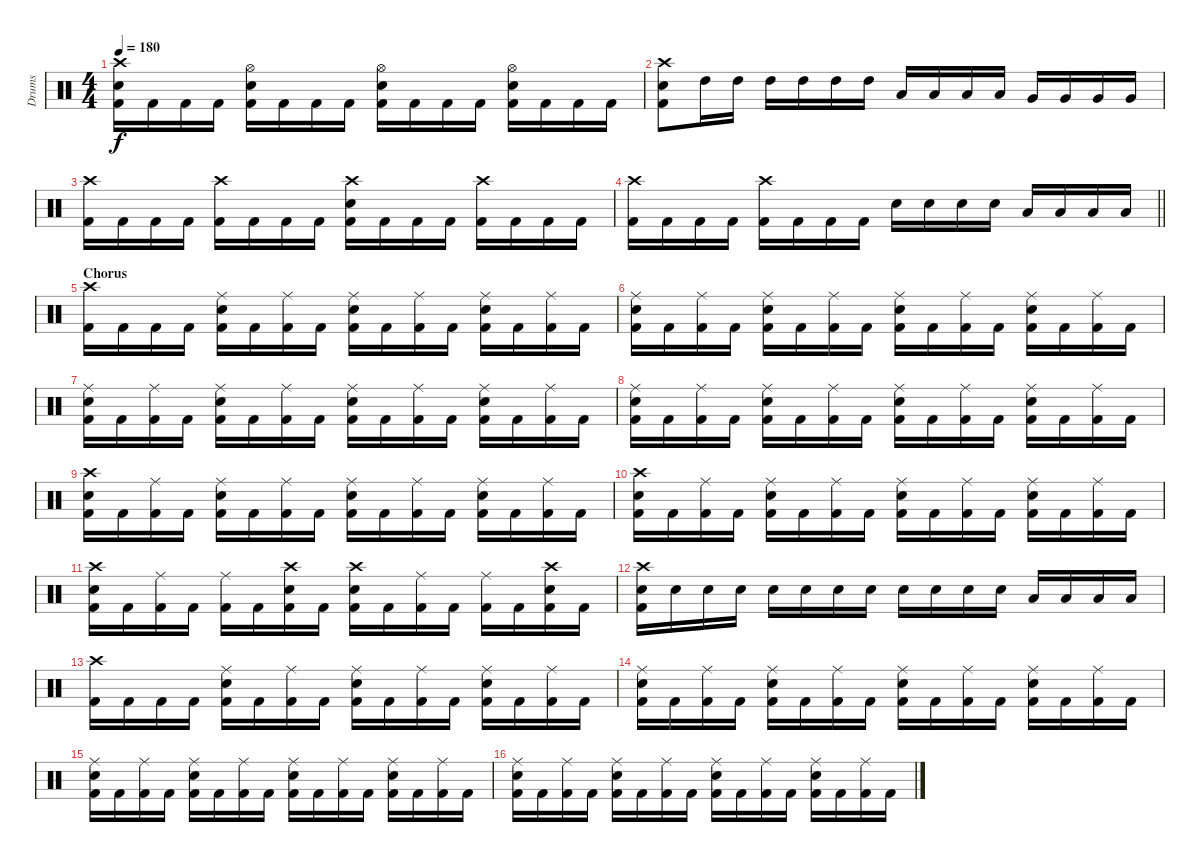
\track ("Drums" "Drums") {instrument percussion}
\staff {score}
\articulation defaults
\ts (4 4)
\tempo 180
\clef neutral
\ks c
("Crash high (hit)" "Electric Snare (hit)" "Kick (hit) 2").16{dy f} "Kick (hit) 2".16 "Kick (hit) 2".16 "Kick (hit) 2".16 ("Hi-Hat (open)" "Electric Snare (hit)" "Kick (hit) 2").16 "Kick (hit) 2".16 "Kick (hit) 2".16 "Kick (hit) 2".16 ("Hi-Hat (open)" "Electric Snare (hit)" "Kick (hit) 2").16 "Kick (hit) 2".16 "Kick (hit) 2".16 "Kick (hit) 2".16 ("Hi-Hat (open)" "Electric Snare (hit)" "Kick (hit) 2").16 "Kick (hit) 2".16 "Kick (hit) 2".16 "Kick (hit) 2".16 |
("Crash high (hit)" "Electric Snare (hit)" "Kick (hit) 2").8 "High Tom (hit)".16 "High Tom (hit)".16 "High Tom (hit)".16 "High Tom (hit)".16 "High Tom (hit)".16 "High Tom (hit)".16 "Low Tom (hit)".16 "Low Tom (hit)".16 "Low Tom (hit)".16 "Low Tom (hit)".16 "Very Low Tom (hit)".16 "Very Low Tom (hit)".16 "Very Low Tom (hit)".16 "Very Low Tom (hit)".16 |
("Crash high (hit)" "Kick (hit) 2").16 "Kick (hit) 2".16 "Kick (hit) 2".16 "Kick (hit) 2".16 ("Crash high (hit)" "Kick (hit) 2").16 "Kick (hit) 2".16 "Kick (hit) 2".16 "Kick (hit) 2".16 ("Crash high (hit)" "Electric Snare (hit)" "Kick (hit) 2").16 "Kick (hit) 2".16 "Kick (hit) 2".16 "Kick (hit) 2".16 ("Crash high (hit)" "Kick (hit) 2").16 "Kick (hit) 2".16 "Kick (hit) 2".16 "Kick (hit) 2".16 |
\barLineRight lightlight
("Crash high (hit)" "Kick (hit) 2").16 "Kick (hit) 2".16 "Kick (hit) 2".16 "Kick (hit) 2".16 ("Crash high (hit)" "Kick (hit) 2").16 "Kick (hit) 2".16 "Kick (hit) 2".16 "Kick (hit) 2".16 "Electric Snare (hit)".16 "Electric Snare (hit)".16 "Electric Snare (hit)".16 "Electric Snare (hit)".16 "Low Tom (hit)".16 "Low Tom (hit)".16 "Low Tom (hit)".16 "Low Tom (hit)".16 |
\section ("" "Chorus")
("Crash high (hit)" "Kick (hit) 2").16 "Kick (hit) 2".16 "Kick (hit) 2".16 "Kick (hit) 2".16 ("Ride (middle)" "Electric Snare (hit)" "Kick (hit) 2").16 "Kick (hit) 2".16 ("Ride (middle)" "Kick (hit) 2").16 "Kick (hit) 2".16 ("Ride (middle)" "Electric Snare (hit)" "Kick (hit) 2").16 "Kick (hit) 2".16 ("Ride (middle)" "Kick (hit) 2").16 "Kick (hit) 2".16 ("Ride (middle)" "Electric Snare (hit)" "Kick (hit) 2").16 "Kick (hit) 2".16 ("Ride (middle)" "Kick (hit) 2").16 "Kick (hit) 2".16 |
("Ride (middle)" "Electric Snare (hit)" "Kick (hit) 2").16 "Kick (hit) 2".16 ("Ride (middle)" "Kick (hit) 2").16 "Kick (hit) 2".16 ("Ride (middle)" "Electric Snare (hit)" "Kick (hit) 2").16 "Kick (hit) 2".16 ("Ride (middle)" "Kick (hit) 2").16 "Kick (hit) 2".16 ("Ride (middle)" "Electric Snare (hit)" "Kick (hit) 2").16 "Kick (hit) 2".16 ("Ride (middle)" "Kick (hit) 2").16 "Kick (hit) 2".16 ("Ride (middle)" "Electric Snare (hit)" "Kick (hit) 2").16 "Kick (hit) 2".16 ("Ride (middle)" "Kick (hit) 2").16 "Kick (hit) 2".16 |
("Ride (middle)" "Electric Snare (hit)" "Kick (hit) 2").16 "Kick (hit) 2".16 ("Ride (middle)" "Kick (hit) 2").16 "Kick (hit) 2".16 ("Ride (middle)" "Electric Snare (hit)" "Kick (hit) 2").16 "Kick (hit) 2".16 ("Ride (middle)" "Kick (hit) 2").16 "Kick (hit) 2".16 ("Ride (middle)" "Electric Snare (hit)" "Kick (hit) 2").16 "Kick (hit) 2".16 ("Ride (middle)" "Kick (hit) 2").16 "Kick (hit) 2".16 ("Ride (middle)" "Electric Snare (hit)" "Kick (hit) 2").16 "Kick (hit) 2".16 ("Ride (middle)" "Kick (hit) 2").16 "Kick (hit) 2".16 |
("Ride (middle)" "Electric Snare (hit)" "Kick (hit) 2").16 "Kick (hit) 2".16 ("Ride (middle)" "Kick (hit) 2").16 "Kick (hit) 2".16 ("Ride (middle)" "Electric Snare (hit)" "Kick (hit) 2").16 "Kick (hit) 2".16 ("Ride (middle)" "Kick (hit) 2").16 "Kick (hit) 2".16 ("Ride (middle)" "Electric Snare (hit)" "Kick (hit) 2").16 "Kick (hit) 2".16 ("Ride (middle)" "Kick (hit) 2").16 "Kick (hit) 2".16 ("Ride (middle)" "Electric Snare (hit)" "Kick (hit) 2").16 "Kick (hit) 2".16 ("Ride (middle)" "Kick (hit) 2").16 "Kick (hit) 2".16 |
("Crash high (hit)" "Electric Snare (hit)" "Kick (hit) 2").16 "Kick (hit) 2".16 ("Ride (middle)" "Kick (hit) 2").16 "Kick (hit) 2".16 ("Ride (middle)" "Electric Snare (hit)" "Kick (hit) 2").16 "Kick (hit) 2".16 ("Ride (middle)" "Kick (hit) 2").16 "Kick (hit) 2".16 ("Ride (middle)" "Electric Snare (hit)" "Kick (hit) 2").16 "Kick (hit) 2".16 ("Ride (middle)" "Kick (hit) 2").16 "Kick (hit) 2".16 ("Ride (middle)" "Electric Snare (hit)" "Kick (hit) 2").16 "Kick (hit) 2".16 ("Ride (middle)" "Kick (hit) 2").16 "Kick (hit) 2".16 |
("Crash high (hit)" "Electric Snare (hit)" "Kick (hit) 2").16 "Kick (hit) 2".16 ("Ride (middle)" "Kick (hit) 2").16 "Kick (hit) 2".16 ("Ride (middle)" "Electric Snare (hit)" "Kick (hit) 2").16 "Kick (hit) 2".16 ("Ride (middle)" "Kick (hit) 2").16 "Kick (hit) 2".16 ("Ride (middle)" "Electric Snare (hit)" "Kick (hit) 2").16 "Kick (hit) 2".16 ("Ride (middle)" "Kick (hit) 2").16 "Kick (hit) 2".16 ("Ride (middle)" "Electric Snare (hit)" "Kick (hit) 2").16 "Kick (hit) 2".16 ("Ride (middle)" "Kick (hit) 2").16 "Kick (hit) 2".16 |
("Crash high (hit)" "Electric Snare (hit)" "Kick (hit) 2").16 "Kick (hit) 2".16 ("Ride (middle)" "Kick (hit) 2").16 "Kick (hit) 2".16 ("Ride (middle)" "Kick (hit) 2").16 "Kick (hit) 2".16 ("Crash high (hit)" "Electric Snare (hit)" "Kick (hit) 2").16 "Kick (hit) 2".16 ("Crash high (hit)" "Electric Snare (hit)" "Kick (hit) 2").16 "Kick (hit) 2".16 ("Ride (middle)" "Kick (hit) 2").16 "Kick (hit) 2".16 ("Ride (middle)" "Kick (hit) 2").16 "Kick (hit) 2".16 ("Crash high (hit)" "Electric Snare (hit)" "Kick (hit) 2").16 "Kick (hit) 2".16 |
("Crash high (hit)" "Electric Snare (hit)" "Kick (hit) 2").16 "Electric Snare (hit)".16 "Electric Snare (hit)".16 "Electric Snare (hit)".16 "Electric Snare (hit)".16 "Electric Snare (hit)".16 "Electric Snare (hit)".16 "Electric Snare (hit)".16 "Electric Snare (hit)".16 "Electric Snare (hit)".16 "Electric Snare (hit)".16 "Electric Snare (hit)".16 "Low Tom (hit)".16 "Low Tom (hit)".16 "Low Tom (hit)".16 "Low Tom (hit)".16 |
("Crash high (hit)" "Kick (hit) 2").16 "Kick (hit) 2".16 "Kick (hit) 2".16 "Kick (hit) 2".16 ("Ride (middle)" "Electric Snare (hit)" "Kick (hit) 2").16 "Kick (hit) 2".16 ("Ride (middle)" "Kick (hit) 2").16 "Kick (hit) 2".16 ("Ride (middle)" "Electric Snare (hit)" "Kick (hit) 2").16 "Kick (hit) 2".16 ("Ride (middle)" "Kick (hit) 2").16 "Kick (hit) 2".16 ("Ride (middle)" "Electric Snare (hit)" "Kick (hit) 2").16 "Kick (hit) 2".16 ("Ride (middle)" "Kick (hit) 2").16 "Kick (hit) 2".16 |
("Ride (middle)" "Electric Snare (hit)" "Kick (hit) 2").16 "Kick (hit) 2".16 ("Ride (middle)" "Kick (hit) 2").16 "Kick (hit) 2".16 ("Ride (middle)" "Electric Snare (hit)" "Kick (hit) 2").16 "Kick (hit) 2".16 ("Ride (middle)" "Kick (hit) 2").16 "Kick (hit) 2".16 ("Ride (middle)" "Electric Snare (hit)" "Kick (hit) 2").16 "Kick (hit) 2".16 ("Ride (middle)" "Kick (hit) 2").16 "Kick (hit) 2".16 ("Ride (middle)" "Electric Snare (hit)" "Kick (hit) 2").16 "Kick (hit) 2".16 ("Ride (middle)" "Kick (hit) 2").16 "Kick (hit) 2".16 |
("Ride (middle)" "Electric Snare (hit)" "Kick (hit) 2").16 "Kick (hit) 2".16 ("Ride (middle)" "Kick (hit) 2").16 "Kick (hit) 2".16 ("Ride (middle)" "Electric Snare (hit)" "Kick (hit) 2").16 "Kick (hit) 2".16 ("Ride (middle)" "Kick (hit) 2").16 "Kick (hit) 2".16 ("Ride (middle)" "Electric Snare (hit)" "Kick (hit) 2").16 "Kick (hit) 2".16 ("Ride (middle)" "Kick (hit) 2").16 "Kick (hit) 2".16 ("Ride (middle)" "Electric Snare (hit)" "Kick (hit) 2").16 "Kick (hit) 2".16 ("Ride (middle)" "Kick (hit) 2").16 "Kick (hit) 2".16 |
("Ride (middle)" "Electric Snare (hit)" "Kick (hit) 2").16 "Kick (hit) 2".16 ("Ride (middle)" "Kick (hit) 2").16 "Kick (hit) 2".16 ("Ride (middle)" "Electric Snare (hit)" "Kick (hit) 2").16 "Kick (hit) 2".16 ("Ride (middle)" "Kick (hit) 2").16 "Kick (hit) 2".16 ("Ride (middle)" "Electric Snare (hit)" "Kick (hit) 2").16 "Kick (hit) 2".16 ("Ride (middle)" "Kick (hit) 2").16 "Kick (hit) 2".16 ("Ride (middle)" "Electric Snare (hit)" "Kick (hit) 2").16 "Kick (hit) 2".16 ("Ride (middle)" "Kick (hit) 2").16 "Kick (hit) 2".16
